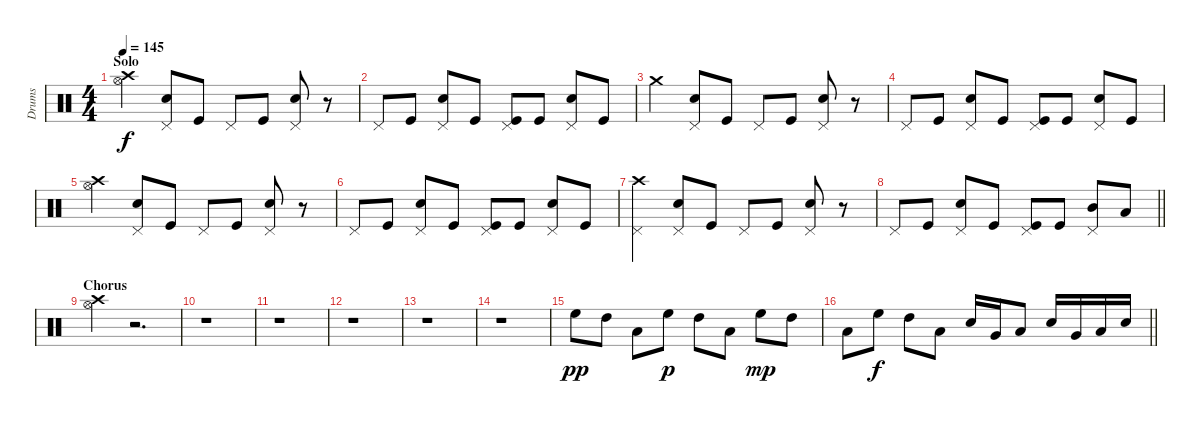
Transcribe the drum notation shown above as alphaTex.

\track ("Drums" "Drums") {instrument percussion}
\staff {score}
\articulation defaults
\ts (4 4)
\section ("" "Solo")
\tempo 145
\clef neutral
\ks c
("Crash high (hit)" "Hi-Hat (open)").4{dy f} ("Pedal Hi-Hat (hit)" "Snare (hit) 2").8 "Kick (hit)".8 "Pedal Hi-Hat (hit)".8 "Kick (hit)".8 ("Pedal Hi-Hat (hit)" "Snare (hit) 2").8 r.8 |
"Pedal Hi-Hat (hit)".8 "Kick (hit)".8 ("Pedal Hi-Hat (hit)" "Snare (hit) 2").8 "Kick (hit)".8 ("Pedal Hi-Hat (hit)" "Kick (hit)").8 "Kick (hit)".8 ("Pedal Hi-Hat (hit)" "Snare (hit) 2").8 "Kick (hit)".8 |
"Crash medium (hit)".4 ("Pedal Hi-Hat (hit)" "Snare (hit) 2").8 "Kick (hit)".8 "Pedal Hi-Hat (hit)".8 "Kick (hit)".8 ("Pedal Hi-Hat (hit)" "Snare (hit) 2").8 r.8 |
"Pedal Hi-Hat (hit)".8 "Kick (hit)".8 ("Pedal Hi-Hat (hit)" "Snare (hit) 2").8 "Kick (hit)".8 ("Pedal Hi-Hat (hit)" "Kick (hit)").8 "Kick (hit)".8 ("Pedal Hi-Hat (hit)" "Snare (hit) 2").8 "Kick (hit)".8 |
("Crash high (hit)" "Hi-Hat (open)").4 ("Pedal Hi-Hat (hit)" "Snare (hit) 2").8 "Kick (hit)".8 "Pedal Hi-Hat (hit)".8 "Kick (hit)".8 ("Pedal Hi-Hat (hit)" "Snare (hit) 2").8 r.8 |
"Pedal Hi-Hat (hit)".8 "Kick (hit)".8 ("Pedal Hi-Hat (hit)" "Snare (hit) 2").8 "Kick (hit)".8 ("Pedal Hi-Hat (hit)" "Kick (hit)").8 "Kick (hit)".8 ("Pedal Hi-Hat (hit)" "Snare (hit) 2").8 "Kick (hit)".8 |
("Crash high (hit)" "Pedal Hi-Hat (hit)").4 ("Pedal Hi-Hat (hit)" "Snare (hit) 2").8 "Kick (hit)".8 "Pedal Hi-Hat (hit)".8 "Kick (hit)".8 ("Pedal Hi-Hat (hit)" "Snare (hit) 2").8 r.8 |
\barLineRight lightlight "Pedal Hi-Hat (hit)".8 "Kick (hit)".8
("Pedal Hi-Hat (hit)" "Snare (hit) 2").8 "Kick (hit)".8 ("Pedal Hi-Hat (hit)" "Kick (hit)").8 "Kick (hit)".8 ("Pedal Hi-Hat (hit)" "Mid Tom (hit)").8 "Low Tom (hit)".8 |
\section ("" "Chorus")
("Crash high (hit)" "Hi-Hat (open)").4 r.2{d} |
r.1 |
r.1 |
r.1 |
r.1 |
r.1 |
"High Floor Tom (hit)".8{dy pp} "High Tom (hit)".8 "Low Tom (hit)".8 "High Floor Tom (hit)".8{dy p} "High Tom (hit)".8 "Low Tom (hit)".8 "High Floor Tom (hit)".8{dy mp} "High Tom (hit)".8 |
\barLineRight lightlight "Low Tom (hit)".8 "High Floor Tom (hit)".8{dy f} "High Tom (hit)".8 "Low Tom (hit)".8 "Snare (hit) 2".16 "Very Low Tom (hit)".16 "Low Floor Tom (hit)".8 "Snare (hit) 2".16 "Very Low Tom (hit)".16 "Low Floor Tom (hit)".16 "Snare (hit) 2".16
